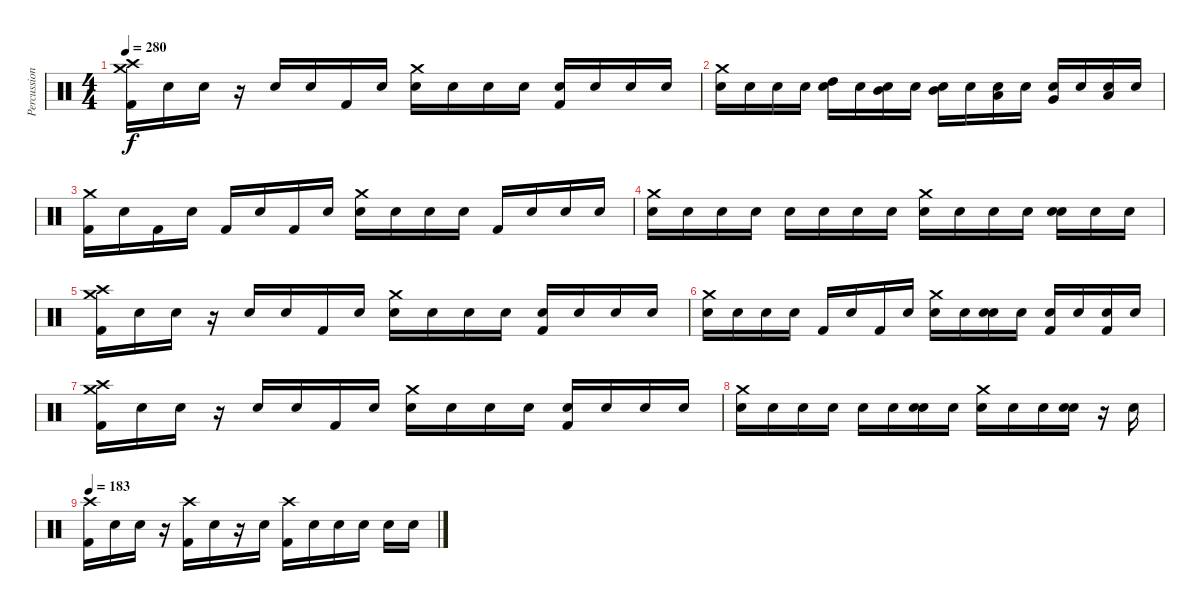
\track ("Percussion" "Percussion") {instrument percussion}
\staff {score}
\articulation defaults
\ts (4 4)
\tempo 280
\clef neutral
\ks c
("Crash high (hit)" "Crash medium (hit)" "Kick (hit) 2").16{dy f} "Snare (hit)".16 "Snare (hit)".16 r.16 "Snare (hit)".16 "Snare (hit)".16 "Kick (hit) 2".16 "Snare (hit)".16 ("Crash medium (hit)" "Snare (hit)").16 "Snare (hit)".16 "Snare (hit)".16 "Snare (hit)".16 ("Kick (hit) 2" "Snare (hit)").16 "Snare (hit)".16 "Snare (hit)".16 "Snare (hit)".16 |
("Snare (hit) 2" "Crash medium (hit)").16 "Snare (hit)".16 "Snare (hit)".16 "Snare (hit)".16 ("High Tom (hit)" "Snare (hit)").16 "Snare (hit)".16 ("Mid Tom (hit)" "Snare (hit)").16 "Snare (hit)".16 ("Mid Tom (hit)" "Snare (hit)").16 "Snare (hit)".16 ("Low Tom (hit)" "Snare (hit)").16 "Snare (hit)".16 ("Very Low Tom (hit)" "Snare (hit)").16 "Snare (hit)".16 ("Low Floor Tom (hit)" "Snare (hit)").16 "Snare (hit)".16 |
("Crash medium (hit)" "Kick (hit) 2").16 "Snare (hit)".16 "Kick (hit) 2".16 "Snare (hit)".16 "Kick (hit) 2".16 "Snare (hit)".16 "Kick (hit) 2".16 "Snare (hit)".16 ("Crash medium (hit)" "Snare (hit)").16 "Snare (hit)".16 "Snare (hit)".16 "Snare (hit)".16 "Kick (hit) 2".16 "Snare (hit)".16 "Snare (hit)".16 "Snare (hit)".16 |
("Crash medium (hit)" "Snare (hit) 2").16 "Snare (hit)".16 "Snare (hit)".16 "Snare (hit)".16 "Snare (hit)".16 "Snare (hit)".16 "Snare (hit)".16 "Snare (hit)".16 ("Crash medium (hit)" "Snare (hit)").16 "Snare (hit)".16 "Snare (hit)".16 "Snare (hit)".16 ("Snare (hit) 2" "Snare (hit)").16 "Snare (hit)".16 "Snare (hit) 2".16 |
("Crash high (hit)" "Crash medium (hit)" "Kick (hit) 2").16 "Snare (hit)".16 "Snare (hit)".16 r.16 "Snare (hit)".16 "Snare (hit)".16 "Kick (hit) 2".16 "Snare (hit)".16 ("Crash medium (hit)" "Snare (hit)").16 "Snare (hit)".16 "Snare (hit)".16 "Snare (hit)".16 ("Kick (hit) 2" "Snare (hit)").16 "Snare (hit)".16 "Snare (hit)".16 "Snare (hit)".16 |
("Snare (hit) 2" "Crash medium (hit)").16 "Snare (hit)".16 "Snare (hit) 2".16 "Snare (hit)".16 "Kick (hit) 2".16 "Snare (hit)".16 "Kick (hit) 2".16 "Snare (hit)".16 ("Snare (hit) 2" "Crash medium (hit)").16 "Snare (hit)".16 ("Snare (hit) 2" "Snare (hit)").16 "Snare (hit)".16 ("Kick (hit) 2" "Snare (hit)").16 "Snare (hit)".16 ("Kick (hit) 2" "Snare (hit)").16 "Snare (hit)".16 |
("Crash high (hit)" "Crash medium (hit)" "Kick (hit) 2").16 "Snare (hit)".16 "Snare (hit)".16 r.16 "Snare (hit)".16 "Snare (hit)".16 "Kick (hit) 2".16 "Snare (hit)".16 ("Crash medium (hit)" "Snare (hit)").16 "Snare (hit)".16 "Snare (hit)".16 "Snare (hit)".16 ("Kick (hit) 2" "Snare (hit)").16 "Snare (hit)".16 "Snare (hit)".16 "Snare (hit)".16 |
("Crash medium (hit)" "Snare (hit) 2").16 "Snare (hit)".16 "Snare (hit)".16 "Snare (hit)".16 "Snare (hit)".16 "Snare (hit)".16 ("Snare (hit) 2" "Snare (hit)").16 "Snare (hit)".16 ("Crash medium (hit)" "Snare (hit)").16 "Snare (hit)".16 "Snare (hit)".16 ("Snare (hit) 2" "Snare (hit)").16 r.16 "Snare (hit)".16 |
\tempo 183
("Crash high (hit)" "Kick (hit) 2").16 "Snare (hit)".16 "Snare (hit)".16 r.16 ("Crash high (hit)" "Kick (hit) 2").16 "Snare (hit)".16 r.16 "Snare (hit)".16 ("Crash high (hit)" "Kick (hit) 2").16 "Snare (hit)".16 "Snare (hit)".16 "Snare (hit)".16 "Snare (hit)".16 "Snare (hit)".16
